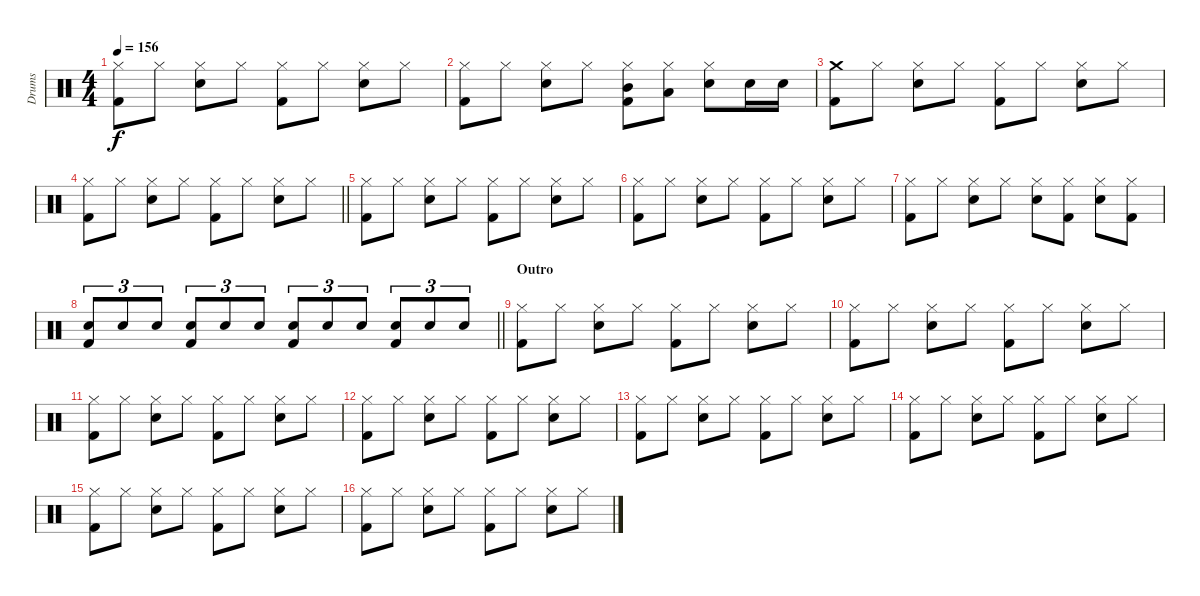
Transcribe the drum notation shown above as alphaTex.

\track ("Drums" "Drums") {instrument percussion}
\staff {score}
\articulation defaults
\ts (4 4)
\tempo 156
\clef neutral
\ks c
("Hi-Hat (closed)" "Kick (hit) 2").8{dy f} "Hi-Hat (closed)".8 ("Hi-Hat (closed)" "Electric Snare (hit)").8 "Hi-Hat (closed)".8 ("Hi-Hat (closed)" "Kick (hit) 2").8 "Hi-Hat (closed)".8 ("Hi-Hat (closed)" "Electric Snare (hit)").8 "Hi-Hat (closed)".8 |
("Hi-Hat (closed)" "Kick (hit) 2").8 "Hi-Hat (closed)".8 ("Hi-Hat (closed)" "Electric Snare (hit)").8 "Hi-Hat (closed)".8 ("Hi-Hat (closed)" "Mid Tom (hit)" "Kick (hit) 2").8 ("Hi-Hat (closed)" "Low Tom (hit)").8 ("Hi-Hat (closed)" "Electric Snare (hit)").8 "Electric Snare (hit)".16 "Electric Snare (hit)".16 |
("Crash medium (hit)" "Kick (hit) 2").8 "Hi-Hat (closed)".8 ("Hi-Hat (closed)" "Electric Snare (hit)").8 "Hi-Hat (closed)".8 ("Hi-Hat (closed)" "Kick (hit) 2").8 "Hi-Hat (closed)".8 ("Hi-Hat (closed)" "Electric Snare (hit)").8 "Hi-Hat (closed)".8 |
\barLineRight lightlight
("Hi-Hat (closed)" "Kick (hit) 2").8 "Hi-Hat (closed)".8 ("Hi-Hat (closed)" "Electric Snare (hit)").8 "Hi-Hat (closed)".8 ("Hi-Hat (closed)" "Kick (hit) 2").8 "Hi-Hat (closed)".8 ("Hi-Hat (closed)" "Electric Snare (hit)").8 "Hi-Hat (closed)".8 |
("Hi-Hat (closed)" "Kick (hit) 2").8 "Hi-Hat (closed)".8 ("Hi-Hat (closed)" "Electric Snare (hit)").8 "Hi-Hat (closed)".8 ("Hi-Hat (closed)" "Kick (hit) 2").8 "Hi-Hat (closed)".8 ("Hi-Hat (closed)" "Electric Snare (hit)").8 "Hi-Hat (closed)".8 |
("Hi-Hat (closed)" "Kick (hit) 2").8 "Hi-Hat (closed)".8 ("Hi-Hat (closed)" "Electric Snare (hit)").8 "Hi-Hat (closed)".8 ("Hi-Hat (closed)" "Kick (hit) 2").8 "Hi-Hat (closed)".8 ("Hi-Hat (closed)" "Electric Snare (hit)").8 "Hi-Hat (closed)".8 |
("Hi-Hat (closed)" "Kick (hit) 2").8 "Hi-Hat (closed)".8 ("Hi-Hat (closed)" "Electric Snare (hit)").8 "Hi-Hat (closed)".8 ("Hi-Hat (closed)" "Electric Snare (hit)").8 ("Hi-Hat (closed)" "Kick (hit) 2").8 ("Hi-Hat (closed)" "Electric Snare (hit)").8 ("Hi-Hat (closed)" "Kick (hit) 2").8 |
\barLineRight lightlight
("Electric Snare (hit)" "Kick (hit) 2").8{tu (3 2)} "Electric Snare (hit)".8{tu (3 2)} "Electric Snare (hit)".8{tu (3 2)} ("Electric Snare (hit)" "Kick (hit) 2").8{tu (3 2)} "Electric Snare (hit)".8{tu (3 2)} "Electric Snare (hit)".8{tu (3 2)} ("Electric Snare (hit)" "Kick (hit) 2").8{tu (3 2)} "Electric Snare (hit)".8{tu (3 2)} "Electric Snare (hit)".8{tu (3 2)} ("Electric Snare (hit)" "Kick (hit) 2").8{tu (3 2)} "Electric Snare (hit)".8{tu (3 2)} "Electric Snare (hit)".8{tu (3 2)} |
\section ("" "Outro")
("Hi-Hat (closed)" "Kick (hit) 2").8 "Hi-Hat (closed)".8 ("Hi-Hat (closed)" "Electric Snare (hit)").8 "Hi-Hat (closed)".8 ("Hi-Hat (closed)" "Kick (hit) 2").8 "Hi-Hat (closed)".8 ("Hi-Hat (closed)" "Electric Snare (hit)").8 "Hi-Hat (closed)".8 |
("Hi-Hat (closed)" "Kick (hit) 2").8 "Hi-Hat (closed)".8 ("Hi-Hat (closed)" "Electric Snare (hit)").8 "Hi-Hat (closed)".8 ("Hi-Hat (closed)" "Kick (hit) 2").8 "Hi-Hat (closed)".8 ("Hi-Hat (closed)" "Electric Snare (hit)").8 "Hi-Hat (closed)".8 |
("Hi-Hat (closed)" "Kick (hit) 2").8 "Hi-Hat (closed)".8 ("Hi-Hat (closed)" "Electric Snare (hit)").8 "Hi-Hat (closed)".8 ("Hi-Hat (closed)" "Kick (hit) 2").8 "Hi-Hat (closed)".8 ("Hi-Hat (closed)" "Electric Snare (hit)").8 "Hi-Hat (closed)".8 |
("Hi-Hat (closed)" "Kick (hit) 2").8 "Hi-Hat (closed)".8 ("Hi-Hat (closed)" "Electric Snare (hit)").8 "Hi-Hat (closed)".8 ("Hi-Hat (closed)" "Kick (hit) 2").8 "Hi-Hat (closed)".8 ("Hi-Hat (closed)" "Electric Snare (hit)").8 "Hi-Hat (closed)".8 |
("Hi-Hat (closed)" "Kick (hit) 2").8 "Hi-Hat (closed)".8 ("Hi-Hat (closed)" "Electric Snare (hit)").8 "Hi-Hat (closed)".8 ("Hi-Hat (closed)" "Kick (hit) 2").8 "Hi-Hat (closed)".8 ("Hi-Hat (closed)" "Electric Snare (hit)").8 "Hi-Hat (closed)".8 |
("Hi-Hat (closed)" "Kick (hit) 2").8 "Hi-Hat (closed)".8 ("Hi-Hat (closed)" "Electric Snare (hit)").8 "Hi-Hat (closed)".8 ("Hi-Hat (closed)" "Kick (hit) 2").8 "Hi-Hat (closed)".8 ("Hi-Hat (closed)" "Electric Snare (hit)").8 "Hi-Hat (closed)".8 |
("Hi-Hat (closed)" "Kick (hit) 2").8 "Hi-Hat (closed)".8 ("Hi-Hat (closed)" "Electric Snare (hit)").8 "Hi-Hat (closed)".8 ("Hi-Hat (closed)" "Kick (hit) 2").8 "Hi-Hat (closed)".8 ("Hi-Hat (closed)" "Electric Snare (hit)").8 "Hi-Hat (closed)".8 |
("Hi-Hat (closed)" "Kick (hit) 2").8 "Hi-Hat (closed)".8 ("Hi-Hat (closed)" "Electric Snare (hit)").8 "Hi-Hat (closed)".8 ("Hi-Hat (closed)" "Kick (hit) 2").8 "Hi-Hat (closed)".8 ("Hi-Hat (closed)" "Electric Snare (hit)").8 "Hi-Hat (closed)".8
